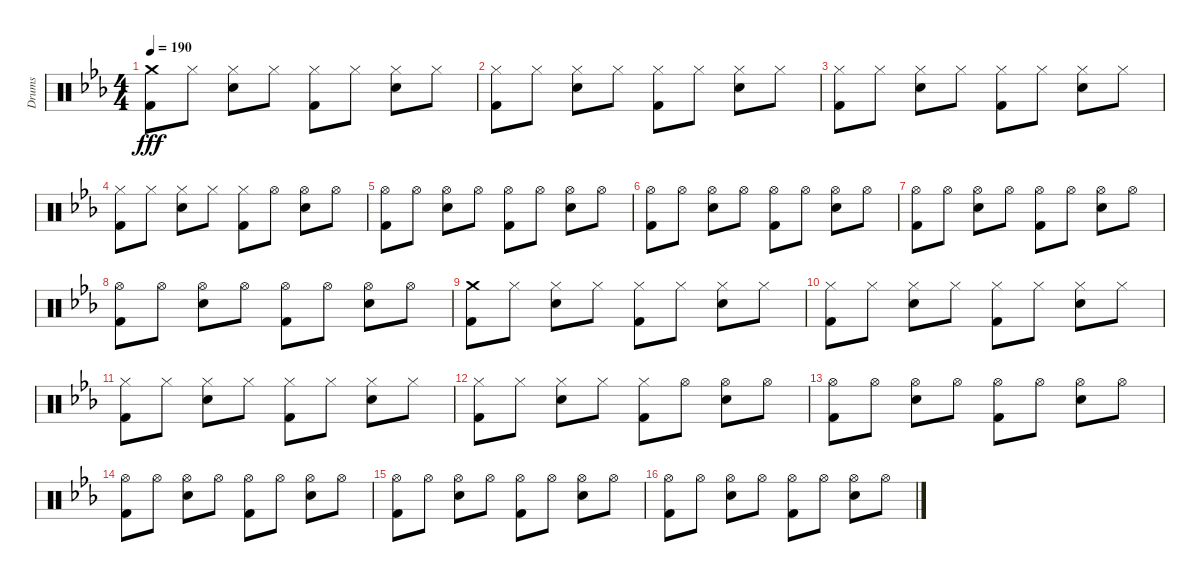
\track ("Drums" "Drums") {instrument percussion}
\staff {score}
\articulation defaults
\ts (4 4)
\tempo 190
\clef neutral
\ks eb
("Crash medium (hit)" "Kick (hit) 2").8{dy fff} "Hi-Hat (closed)".8 ("Hi-Hat (closed)" "Electric Snare (hit)").8 "Hi-Hat (closed)".8 ("Hi-Hat (closed)" "Kick (hit) 2").8 "Hi-Hat (closed)".8 ("Hi-Hat (closed)" "Electric Snare (hit)").8 "Hi-Hat (closed)".8 |
("Hi-Hat (closed)" "Kick (hit) 2").8 "Hi-Hat (closed)".8 ("Hi-Hat (closed)" "Electric Snare (hit)").8 "Hi-Hat (closed)".8 ("Hi-Hat (closed)" "Kick (hit) 2").8 "Hi-Hat (closed)".8 ("Hi-Hat (closed)" "Electric Snare (hit)").8 "Hi-Hat (closed)".8 |
("Hi-Hat (closed)" "Kick (hit) 2").8 "Hi-Hat (closed)".8 ("Hi-Hat (closed)" "Electric Snare (hit)").8 "Hi-Hat (closed)".8 ("Hi-Hat (closed)" "Kick (hit) 2").8 "Hi-Hat (closed)".8 ("Hi-Hat (closed)" "Electric Snare (hit)").8 "Hi-Hat (closed)".8 |
("Hi-Hat (closed)" "Kick (hit) 2").8 "Hi-Hat (closed)".8 ("Hi-Hat (closed)" "Electric Snare (hit)").8 "Hi-Hat (closed)".8 ("Hi-Hat (closed)" "Kick (hit) 2").8 "Hi-Hat (open)".8 ("Hi-Hat (open)" "Electric Snare (hit)").8 "Hi-Hat (open)".8 |
("Hi-Hat (open)" "Kick (hit) 2").8 "Hi-Hat (open)".8 ("Hi-Hat (open)" "Electric Snare (hit)").8 "Hi-Hat (open)".8 ("Hi-Hat (open)" "Kick (hit) 2").8 "Hi-Hat (open)".8 ("Hi-Hat (open)" "Electric Snare (hit)").8 "Hi-Hat (open)".8 |
("Hi-Hat (open)" "Kick (hit) 2").8 "Hi-Hat (open)".8 ("Hi-Hat (open)" "Electric Snare (hit)").8 "Hi-Hat (open)".8 ("Hi-Hat (open)" "Kick (hit) 2").8 "Hi-Hat (open)".8 ("Hi-Hat (open)" "Electric Snare (hit)").8 "Hi-Hat (open)".8 |
("Hi-Hat (open)" "Kick (hit) 2").8 "Hi-Hat (open)".8 ("Hi-Hat (open)" "Electric Snare (hit)").8 "Hi-Hat (open)".8 ("Hi-Hat (open)" "Kick (hit) 2").8 "Hi-Hat (open)".8 ("Hi-Hat (open)" "Electric Snare (hit)").8 "Hi-Hat (open)".8 |
("Hi-Hat (open)" "Kick (hit) 2").8 "Hi-Hat (open)".8 ("Hi-Hat (open)" "Electric Snare (hit)").8 "Hi-Hat (open)".8 ("Hi-Hat (open)" "Kick (hit) 2").8 "Hi-Hat (open)".8 ("Hi-Hat (open)" "Electric Snare (hit)").8 "Hi-Hat (open)".8 |
("Crash medium (hit)" "Kick (hit) 2").8 "Hi-Hat (closed)".8 ("Hi-Hat (closed)" "Electric Snare (hit)").8 "Hi-Hat (closed)".8 ("Hi-Hat (closed)" "Kick (hit) 2").8 "Hi-Hat (closed)".8 ("Hi-Hat (closed)" "Electric Snare (hit)").8 "Hi-Hat (closed)".8 |
("Hi-Hat (closed)" "Kick (hit) 2").8 "Hi-Hat (closed)".8 ("Hi-Hat (closed)" "Electric Snare (hit)").8 "Hi-Hat (closed)".8 ("Hi-Hat (closed)" "Kick (hit) 2").8 "Hi-Hat (closed)".8 ("Hi-Hat (closed)" "Electric Snare (hit)").8 "Hi-Hat (closed)".8 |
("Hi-Hat (closed)" "Kick (hit) 2").8 "Hi-Hat (closed)".8 ("Hi-Hat (closed)" "Electric Snare (hit)").8 "Hi-Hat (closed)".8 ("Hi-Hat (closed)" "Kick (hit) 2").8 "Hi-Hat (closed)".8 ("Hi-Hat (closed)" "Electric Snare (hit)").8 "Hi-Hat (closed)".8 |
("Hi-Hat (closed)" "Kick (hit) 2").8 "Hi-Hat (closed)".8 ("Hi-Hat (closed)" "Electric Snare (hit)").8 "Hi-Hat (closed)".8 ("Hi-Hat (closed)" "Kick (hit) 2").8 "Hi-Hat (open)".8 ("Hi-Hat (open)" "Electric Snare (hit)").8 "Hi-Hat (open)".8 |
("Hi-Hat (open)" "Kick (hit) 2").8 "Hi-Hat (open)".8 ("Hi-Hat (open)" "Electric Snare (hit)").8 "Hi-Hat (open)".8 ("Hi-Hat (open)" "Kick (hit) 2").8 "Hi-Hat (open)".8 ("Hi-Hat (open)" "Electric Snare (hit)").8 "Hi-Hat (open)".8 |
("Hi-Hat (open)" "Kick (hit) 2").8 "Hi-Hat (open)".8 ("Hi-Hat (open)" "Electric Snare (hit)").8 "Hi-Hat (open)".8 ("Hi-Hat (open)" "Kick (hit) 2").8 "Hi-Hat (open)".8 ("Hi-Hat (open)" "Electric Snare (hit)").8 "Hi-Hat (open)".8 |
("Hi-Hat (open)" "Kick (hit) 2").8 "Hi-Hat (open)".8 ("Hi-Hat (open)" "Electric Snare (hit)").8 "Hi-Hat (open)".8 ("Hi-Hat (open)" "Kick (hit) 2").8 "Hi-Hat (open)".8 ("Hi-Hat (open)" "Electric Snare (hit)").8 "Hi-Hat (open)".8 |
("Hi-Hat (open)" "Kick (hit) 2").8 "Hi-Hat (open)".8 ("Hi-Hat (open)" "Electric Snare (hit)").8 "Hi-Hat (open)".8 ("Hi-Hat (open)" "Kick (hit) 2").8 "Hi-Hat (open)".8 ("Hi-Hat (open)" "Electric Snare (hit)").8 "Hi-Hat (open)".8
